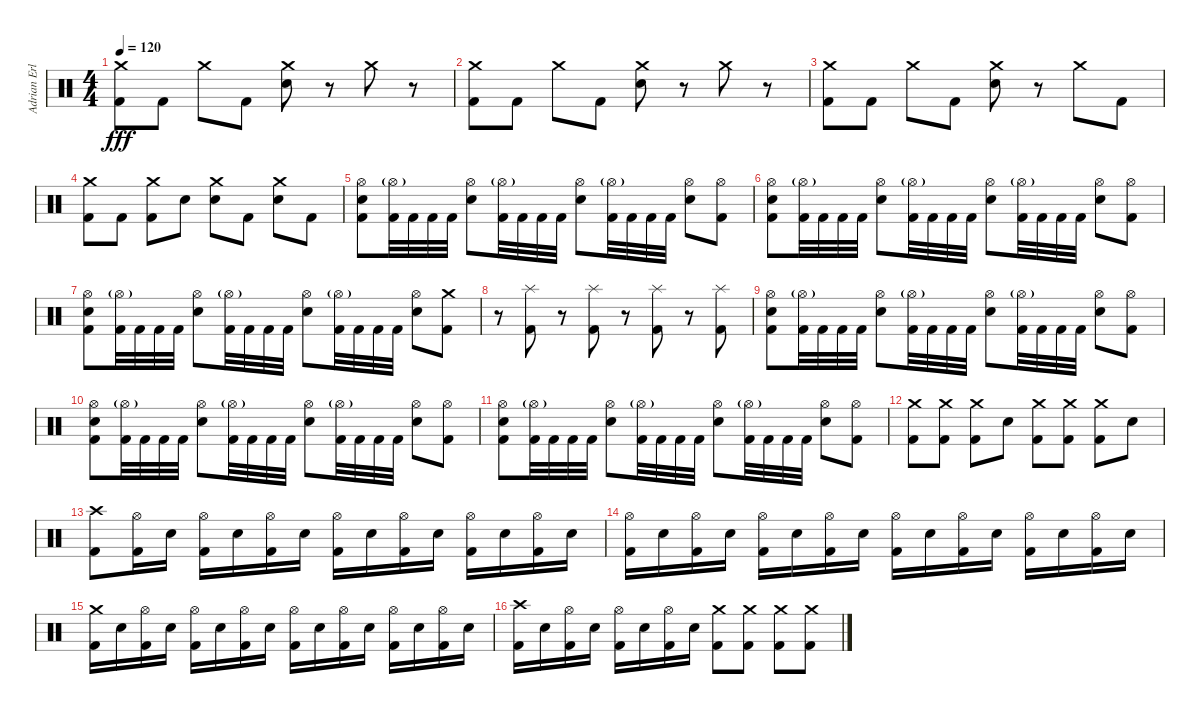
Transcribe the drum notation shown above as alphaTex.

\track ("Adrian Erlandsson" "Adrian Erl") {instrument percussion}
\staff {score}
\articulation defaults
\ts (4 4)
\tempo 120
\clef neutral
\ks c
("Crash medium (hit)" "Kick (hit) 2").8{dy fff} "Kick (hit) 2".8 "Crash medium (hit)".8 "Kick (hit) 2".8 ("Crash medium (hit)" "Electric Snare (hit)").8 r.8 "Crash medium (hit)".8 r.8 |
("Crash medium (hit)" "Kick (hit) 2").8 "Kick (hit) 2".8 "Crash medium (hit)".8 "Kick (hit) 2".8 ("Crash medium (hit)" "Electric Snare (hit)").8 r.8 "Crash medium (hit)".8 r.8 |
("Crash medium (hit)" "Kick (hit) 2").8 "Kick (hit) 2".8 "Crash medium (hit)".8 "Kick (hit) 2".8 ("Crash medium (hit)" "Electric Snare (hit)").8 r.8 "Crash medium (hit)".8 "Kick (hit) 2".8 |
("Crash medium (hit)" "Kick (hit) 2").8 "Kick (hit) 2".8 ("Crash medium (hit)" "Kick (hit) 2").8 "Electric Snare (hit)".8 ("Crash medium (hit)" "Electric Snare (hit)").8 "Kick (hit) 2".8 ("Crash medium (hit)" "Electric Snare (hit)").8 "Kick (hit) 2".8 |
("Hi-Hat (open)" "Electric Snare (hit)" "Kick (hit) 2").8 ("Hi-Hat (open)"{g} "Kick (hit) 2").32 "Kick (hit) 2".32 "Kick (hit) 2".32 "Kick (hit) 2".32 ("Hi-Hat (open)" "Electric Snare (hit)").8 ("Hi-Hat (open)"{g} "Kick (hit) 2").32 "Kick (hit) 2".32 "Kick (hit) 2".32 "Kick (hit) 2".32 ("Hi-Hat (open)" "Electric Snare (hit)").8 ("Hi-Hat (open)"{g} "Kick (hit) 2").32 "Kick (hit) 2".32 "Kick (hit) 2".32 "Kick (hit) 2".32 ("Hi-Hat (open)" "Electric Snare (hit)").8 ("Hi-Hat (open)" "Kick (hit) 2").8 |
("Hi-Hat (open)" "Electric Snare (hit)" "Kick (hit) 2").8 ("Hi-Hat (open)"{g} "Kick (hit) 2").32 "Kick (hit) 2".32 "Kick (hit) 2".32 "Kick (hit) 2".32 ("Hi-Hat (open)" "Electric Snare (hit)").8 ("Hi-Hat (open)"{g} "Kick (hit) 2").32 "Kick (hit) 2".32 "Kick (hit) 2".32 "Kick (hit) 2".32 ("Hi-Hat (open)" "Electric Snare (hit)").8 ("Hi-Hat (open)"{g} "Kick (hit) 2").32 "Kick (hit) 2".32 "Kick (hit) 2".32 "Kick (hit) 2".32 ("Hi-Hat (open)" "Electric Snare (hit)").8 ("Hi-Hat (open)" "Kick (hit) 2").8 |
("Hi-Hat (open)" "Electric Snare (hit)" "Kick (hit) 2").8 ("Hi-Hat (open)"{g} "Kick (hit) 2").32 "Kick (hit) 2".32 "Kick (hit) 2".32 "Kick (hit) 2".32 ("Hi-Hat (open)" "Electric Snare (hit)").8 ("Hi-Hat (open)"{g} "Kick (hit) 2").32 "Kick (hit) 2".32 "Kick (hit) 2".32 "Kick (hit) 2".32 ("Hi-Hat (open)" "Electric Snare (hit)").8 ("Hi-Hat (open)"{g} "Kick (hit) 2").32 "Kick (hit) 2".32 "Kick (hit) 2".32 "Kick (hit) 2".32 ("Hi-Hat (open)" "Electric Snare (hit)").8 ("Crash medium (hit)" "Kick (hit) 2").8 |
r.8 ("Splash (hit)" "Kick (hit) 2").8 r.8 ("Splash (hit)" "Kick (hit) 2").8 r.8 ("Splash (hit)" "Kick (hit) 2").8 r.8 ("Splash (hit)" "Kick (hit) 2").8 |
("Hi-Hat (open)" "Electric Snare (hit)" "Kick (hit) 2").8 ("Hi-Hat (open)"{g} "Kick (hit) 2").32 "Kick (hit) 2".32 "Kick (hit) 2".32 "Kick (hit) 2".32 ("Hi-Hat (open)" "Electric Snare (hit)").8 ("Hi-Hat (open)"{g} "Kick (hit) 2").32 "Kick (hit) 2".32 "Kick (hit) 2".32 "Kick (hit) 2".32 ("Hi-Hat (open)" "Electric Snare (hit)").8 ("Hi-Hat (open)"{g} "Kick (hit) 2").32 "Kick (hit) 2".32 "Kick (hit) 2".32 "Kick (hit) 2".32 ("Hi-Hat (open)" "Electric Snare (hit)").8 ("Hi-Hat (open)" "Kick (hit) 2").8 |
("Hi-Hat (open)" "Electric Snare (hit)" "Kick (hit) 2").8 ("Hi-Hat (open)"{g} "Kick (hit) 2").32 "Kick (hit) 2".32 "Kick (hit) 2".32 "Kick (hit) 2".32 ("Hi-Hat (open)" "Electric Snare (hit)").8 ("Hi-Hat (open)"{g} "Kick (hit) 2").32 "Kick (hit) 2".32 "Kick (hit) 2".32 "Kick (hit) 2".32 ("Hi-Hat (open)" "Electric Snare (hit)").8 ("Hi-Hat (open)"{g} "Kick (hit) 2").32 "Kick (hit) 2".32 "Kick (hit) 2".32 "Kick (hit) 2".32 ("Hi-Hat (open)" "Electric Snare (hit)").8 ("Hi-Hat (open)" "Kick (hit) 2").8 |
("Hi-Hat (open)" "Electric Snare (hit)" "Kick (hit) 2").8 ("Hi-Hat (open)"{g} "Kick (hit) 2").32 "Kick (hit) 2".32 "Kick (hit) 2".32 "Kick (hit) 2".32 ("Hi-Hat (open)" "Electric Snare (hit)").8 ("Hi-Hat (open)"{g} "Kick (hit) 2").32 "Kick (hit) 2".32 "Kick (hit) 2".32 "Kick (hit) 2".32 ("Hi-Hat (open)" "Electric Snare (hit)").8 ("Hi-Hat (open)"{g} "Kick (hit) 2").32 "Kick (hit) 2".32 "Kick (hit) 2".32 "Kick (hit) 2".32 ("Hi-Hat (open)" "Electric Snare (hit)").8 ("Hi-Hat (open)" "Kick (hit) 2").8 |
("Crash medium (hit)" "Kick (hit) 2").8 ("Crash medium (hit)" "Kick (hit) 2").8 ("Crash medium (hit)" "Kick (hit) 2").8 "Electric Snare (hit)".8 ("Crash medium (hit)" "Kick (hit) 2").8 ("Crash medium (hit)" "Kick (hit) 2").8 ("Crash medium (hit)" "Kick (hit) 2").8 "Electric Snare (hit)".8 |
("Crash high (hit)" "Kick (hit) 2").8 ("Hi-Hat (open)" "Kick (hit) 2").16 "Electric Snare (hit)".16 ("Hi-Hat (open)" "Kick (hit) 2").16 "Electric Snare (hit)".16 ("Hi-Hat (open)" "Kick (hit) 2").16 "Electric Snare (hit)".16 ("Hi-Hat (open)" "Kick (hit) 2").16 "Electric Snare (hit)".16 ("Hi-Hat (open)" "Kick (hit) 2").16 "Electric Snare (hit)".16 ("Hi-Hat (open)" "Kick (hit) 2").16 "Electric Snare (hit)".16 ("Hi-Hat (open)" "Kick (hit) 2").16 "Electric Snare (hit)".16 |
("Hi-Hat (open)" "Kick (hit) 2").16 "Electric Snare (hit)".16 ("Hi-Hat (open)" "Kick (hit) 2").16 "Electric Snare (hit)".16 ("Hi-Hat (open)" "Kick (hit) 2").16 "Electric Snare (hit)".16 ("Hi-Hat (open)" "Kick (hit) 2").16 "Electric Snare (hit)".16 ("Hi-Hat (open)" "Kick (hit) 2").16 "Electric Snare (hit)".16 ("Hi-Hat (open)" "Kick (hit) 2").16 "Electric Snare (hit)".16 ("Hi-Hat (open)" "Kick (hit) 2").16 "Electric Snare (hit)".16 ("Hi-Hat (open)" "Kick (hit) 2").16 "Electric Snare (hit)".16 |
("Crash medium (hit)" "Kick (hit) 2").16 "Electric Snare (hit)".16 ("Hi-Hat (open)" "Kick (hit) 2").16 "Electric Snare (hit)".16 ("Hi-Hat (open)" "Kick (hit) 2").16 "Electric Snare (hit)".16 ("Hi-Hat (open)" "Kick (hit) 2").16 "Electric Snare (hit)".16 ("Hi-Hat (open)" "Kick (hit) 2").16 "Electric Snare (hit)".16 ("Hi-Hat (open)" "Kick (hit) 2").16 "Electric Snare (hit)".16 ("Hi-Hat (open)" "Kick (hit) 2").16 "Electric Snare (hit)".16 ("Hi-Hat (open)" "Kick (hit) 2").16 "Electric Snare (hit)".16 |
("Crash high (hit)" "Kick (hit) 2").16 "Electric Snare (hit)".16 ("Hi-Hat (open)" "Kick (hit) 2").16 "Electric Snare (hit)".16 ("Hi-Hat (open)" "Kick (hit) 2").16 "Electric Snare (hit)".16 ("Hi-Hat (open)" "Kick (hit) 2").16 "Electric Snare (hit)".16 ("Crash medium (hit)" "Kick (hit) 2").8 ("Crash medium (hit)" "Kick (hit) 2").8 ("Crash medium (hit)" "Kick (hit) 2").8 ("Crash medium (hit)" "Kick (hit) 2").8
